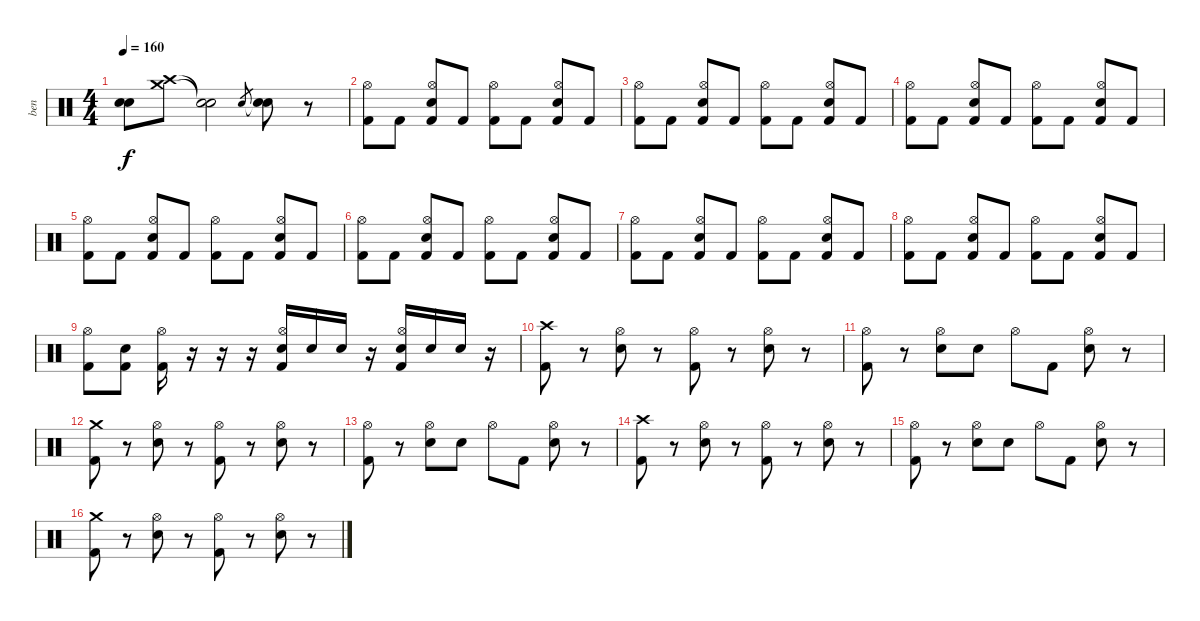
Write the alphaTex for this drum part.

\track ("ben" "ben") {instrument percussion}
\staff {score}
\articulation defaults
\ts (4 4)
\tempo 160
\clef neutral
\ks c
("Electric Snare (hit)" "Snare (hit) 2").8{dy f} ("Crash medium (hit)" "Crash high (hit)").8 ("Snare (hit)"{t} "Snare (hit)"{t}).2 "Electric Snare (hit)".8{gr} ("Snare (hit)"{t} "Electric Snare (hit)").8 r.8 |
("Hi-Hat (open)" "Kick (hit) 2").8 "Kick (hit) 2".8 ("Hi-Hat (open)" "Electric Snare (hit)" "Kick (hit) 2").8 "Kick (hit) 2".8 ("Hi-Hat (open)" "Kick (hit) 2").8 "Kick (hit) 2".8 ("Hi-Hat (open)" "Electric Snare (hit)" "Kick (hit) 2").8 "Kick (hit) 2".8 |
("Hi-Hat (open)" "Kick (hit) 2").8 "Kick (hit) 2".8 ("Hi-Hat (open)" "Electric Snare (hit)" "Kick (hit) 2").8 "Kick (hit) 2".8 ("Hi-Hat (open)" "Kick (hit) 2").8 "Kick (hit) 2".8 ("Hi-Hat (open)" "Electric Snare (hit)" "Kick (hit) 2").8 "Kick (hit) 2".8 |
("Hi-Hat (open)" "Kick (hit) 2").8 "Kick (hit) 2".8 ("Hi-Hat (open)" "Electric Snare (hit)" "Kick (hit) 2").8 "Kick (hit) 2".8 ("Hi-Hat (open)" "Kick (hit) 2").8 "Kick (hit) 2".8 ("Hi-Hat (open)" "Electric Snare (hit)" "Kick (hit) 2").8 "Kick (hit) 2".8 |
("Hi-Hat (open)" "Kick (hit) 2").8 "Kick (hit) 2".8 ("Hi-Hat (open)" "Electric Snare (hit)" "Kick (hit) 2").8 "Kick (hit) 2".8 ("Hi-Hat (open)" "Kick (hit) 2").8 "Kick (hit) 2".8 ("Hi-Hat (open)" "Electric Snare (hit)" "Kick (hit) 2").8 "Kick (hit) 2".8 |
("Hi-Hat (open)" "Kick (hit) 2").8 "Kick (hit) 2".8 ("Hi-Hat (open)" "Electric Snare (hit)" "Kick (hit) 2").8 "Kick (hit) 2".8 ("Hi-Hat (open)" "Kick (hit) 2").8 "Kick (hit) 2".8 ("Hi-Hat (open)" "Electric Snare (hit)" "Kick (hit) 2").8 "Kick (hit) 2".8 |
("Hi-Hat (open)" "Kick (hit) 2").8 "Kick (hit) 2".8 ("Hi-Hat (open)" "Electric Snare (hit)" "Kick (hit) 2").8 "Kick (hit) 2".8 ("Hi-Hat (open)" "Kick (hit) 2").8 "Kick (hit) 2".8 ("Hi-Hat (open)" "Electric Snare (hit)" "Kick (hit) 2").8 "Kick (hit) 2".8 |
("Hi-Hat (open)" "Kick (hit) 2").8 "Kick (hit) 2".8 ("Hi-Hat (open)" "Electric Snare (hit)" "Kick (hit) 2").8 "Kick (hit) 2".8 ("Hi-Hat (open)" "Kick (hit) 2").8 "Kick (hit) 2".8 ("Hi-Hat (open)" "Electric Snare (hit)" "Kick (hit) 2").8 "Kick (hit) 2".8 |
("Hi-Hat (open)" "Kick (hit) 2").8 ("Electric Snare (hit)" "Kick (hit) 2").8 ("Hi-Hat (open)" "Kick (hit) 2").16 r.16 r.16 r.16 ("Hi-Hat (open)" "Electric Snare (hit)" "Kick (hit) 2").16 "Electric Snare (hit)".16 "Electric Snare (hit)".16 r.16 ("Hi-Hat (open)" "Electric Snare (hit)" "Kick (hit) 2").16 "Electric Snare (hit)".16 "Electric Snare (hit)".16 r.16 |
("Crash high (hit)" "Kick (hit) 2").8 r.8 ("Hi-Hat (open)" "Electric Snare (hit)").8 r.8 ("Hi-Hat (open)" "Kick (hit) 2").8 r.8 ("Hi-Hat (open)" "Electric Snare (hit)").8 r.8 |
("Hi-Hat (open)" "Kick (hit) 2").8 r.8 ("Hi-Hat (open)" "Electric Snare (hit)").8 "Electric Snare (hit)".8 "Hi-Hat (open)".8 "Kick (hit) 2".8 ("Hi-Hat (open)" "Electric Snare (hit)").8 r.8 |
("Crash medium (hit)" "Kick (hit) 2").8 r.8 ("Hi-Hat (open)" "Electric Snare (hit)").8 r.8 ("Hi-Hat (open)" "Kick (hit) 2").8 r.8 ("Hi-Hat (open)" "Electric Snare (hit)").8 r.8 |
("Hi-Hat (open)" "Kick (hit) 2").8 r.8 ("Hi-Hat (open)" "Electric Snare (hit)").8 "Electric Snare (hit)".8 "Hi-Hat (open)".8 "Kick (hit) 2".8 ("Hi-Hat (open)" "Electric Snare (hit)").8 r.8 |
("Crash high (hit)" "Kick (hit) 2").8 r.8 ("Hi-Hat (open)" "Electric Snare (hit)").8 r.8 ("Hi-Hat (open)" "Kick (hit) 2").8 r.8 ("Hi-Hat (open)" "Electric Snare (hit)").8 r.8 |
("Hi-Hat (open)" "Kick (hit) 2").8 r.8 ("Hi-Hat (open)" "Electric Snare (hit)").8 "Electric Snare (hit)".8 "Hi-Hat (open)".8 "Kick (hit) 2".8 ("Hi-Hat (open)" "Electric Snare (hit)").8 r.8 |
("Crash medium (hit)" "Kick (hit) 2").8 r.8 ("Hi-Hat (open)" "Electric Snare (hit)").8 r.8 ("Hi-Hat (open)" "Kick (hit) 2").8 r.8 ("Hi-Hat (open)" "Electric Snare (hit)").8 r.8
